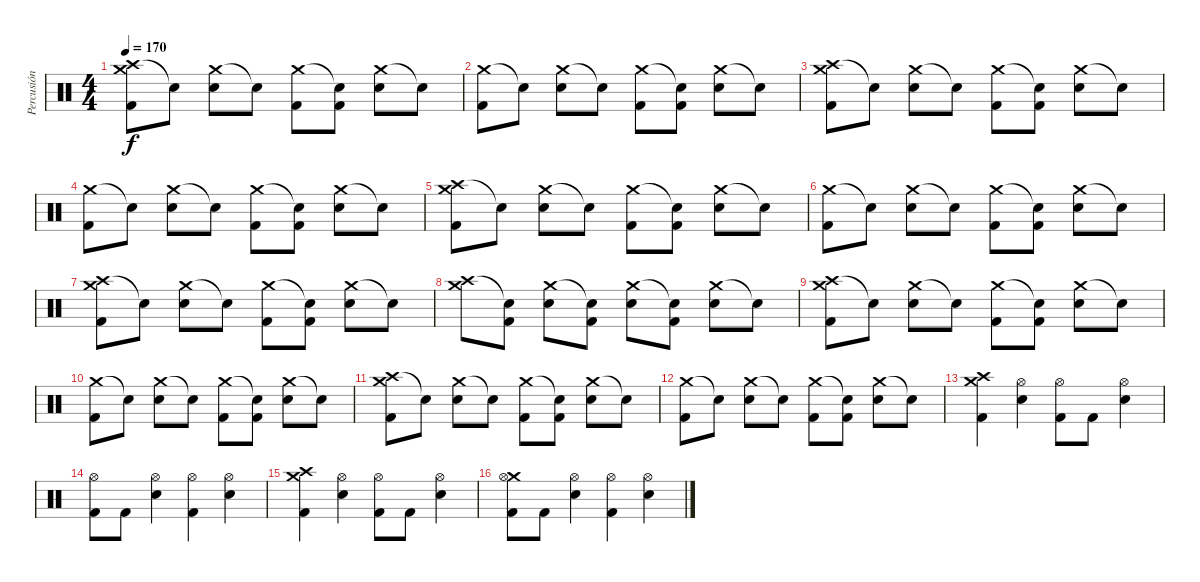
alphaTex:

\track ("Percusión" "Percusión") {instrument percussion}
\staff {score}
\articulation defaults
\ts (4 4)
\tempo 170
\clef neutral
\ks c
("Crash high (hit)" "Crash medium (hit)" "Kick (hit) 2").8{dy f} "Snare (hit)"{t}.8 ("Crash medium (hit)" "Snare (hit) 2").8 "Snare (hit)"{t}.8 ("Crash medium (hit)" "Kick (hit) 2").8 ("Snare (hit)"{t} "Kick (hit) 2").8 ("Crash medium (hit)" "Electric Snare (hit)").8 "Snare (hit)"{t}.8 |
("Crash medium (hit)" "Kick (hit) 2").8 "Snare (hit)"{t}.8 ("Crash medium (hit)" "Electric Snare (hit)").8 "Snare (hit)"{t}.8 ("Crash medium (hit)" "Kick (hit) 2").8 ("Snare (hit)"{t} "Kick (hit) 2").8 ("Crash medium (hit)" "Electric Snare (hit)").8 "Snare (hit)"{t}.8 |
("Crash high (hit)" "Crash medium (hit)" "Kick (hit) 2").8 "Snare (hit)"{t}.8 ("Crash medium (hit)" "Electric Snare (hit)").8 "Snare (hit)"{t}.8 ("Crash medium (hit)" "Kick (hit) 2").8 ("Snare (hit)"{t} "Kick (hit) 2").8 ("Crash medium (hit)" "Electric Snare (hit)").8 "Snare (hit)"{t}.8 |
("Crash medium (hit)" "Kick (hit) 2").8 "Snare (hit)"{t}.8 ("Crash medium (hit)" "Electric Snare (hit)").8 "Snare (hit)"{t}.8 ("Crash medium (hit)" "Kick (hit) 2").8 ("Snare (hit)"{t} "Kick (hit) 2").8 ("Crash medium (hit)" "Electric Snare (hit)").8 "Snare (hit)"{t}.8 |
("Crash high (hit)" "Crash medium (hit)" "Kick (hit) 2").8 "Snare (hit)"{t}.8 ("Crash medium (hit)" "Electric Snare (hit)").8 "Snare (hit)"{t}.8 ("Crash medium (hit)" "Kick (hit) 2").8 ("Snare (hit)"{t} "Kick (hit) 2").8 ("Crash medium (hit)" "Electric Snare (hit)").8 "Snare (hit)"{t}.8 |
("Crash medium (hit)" "Kick (hit) 2").8 "Snare (hit)"{t}.8 ("Crash medium (hit)" "Electric Snare (hit)").8 "Snare (hit)"{t}.8 ("Crash medium (hit)" "Kick (hit) 2").8 ("Snare (hit)"{t} "Kick (hit) 2").8 ("Crash medium (hit)" "Electric Snare (hit)").8 "Snare (hit)"{t}.8 |
("Crash high (hit)" "Crash medium (hit)" "Kick (hit) 2").8 "Snare (hit)"{t}.8 ("Crash medium (hit)" "Electric Snare (hit)").8 "Snare (hit)"{t}.8 ("Crash medium (hit)" "Kick (hit) 2").8 ("Snare (hit)"{t} "Kick (hit) 2").8 ("Crash medium (hit)" "Electric Snare (hit)").8 "Snare (hit)"{t}.8 |
("Crash high (hit)" "Crash medium (hit)").8 ("Snare (hit)"{t} "Kick (hit) 2").8 ("Crash medium (hit)" "Electric Snare (hit)").8 ("Snare (hit)"{t} "Kick (hit) 2").8 ("Crash medium (hit)" "Electric Snare (hit)").8 ("Snare (hit)"{t} "Kick (hit) 2").8 ("Crash medium (hit)" "Electric Snare (hit)").8 "Snare (hit)"{t}.8 |
("Crash high (hit)" "Crash medium (hit)" "Kick (hit) 2").8 "Snare (hit)"{t}.8 ("Crash medium (hit)" "Snare (hit) 2").8 "Snare (hit)"{t}.8 ("Crash medium (hit)" "Kick (hit) 2").8 ("Snare (hit)"{t} "Kick (hit) 2").8 ("Crash medium (hit)" "Electric Snare (hit)").8 "Snare (hit)"{t}.8 |
("Crash medium (hit)" "Kick (hit) 2").8 "Snare (hit)"{t}.8 ("Crash medium (hit)" "Electric Snare (hit)").8 "Snare (hit)"{t}.8 ("Crash medium (hit)" "Kick (hit) 2").8 ("Snare (hit)"{t} "Kick (hit) 2").8 ("Crash medium (hit)" "Electric Snare (hit)").8 "Snare (hit)"{t}.8 |
("Crash high (hit)" "Crash medium (hit)" "Kick (hit) 2").8 "Snare (hit)"{t}.8 ("Crash medium (hit)" "Electric Snare (hit)").8 "Snare (hit)"{t}.8 ("Crash medium (hit)" "Kick (hit) 2").8 ("Snare (hit)"{t} "Kick (hit) 2").8 ("Crash medium (hit)" "Electric Snare (hit)").8 "Snare (hit)"{t}.8 |
("Crash medium (hit)" "Kick (hit) 2").8 "Snare (hit)"{t}.8 ("Crash medium (hit)" "Electric Snare (hit)").8 "Snare (hit)"{t}.8 ("Crash medium (hit)" "Kick (hit) 2").8 ("Snare (hit)"{t} "Kick (hit) 2").8 ("Crash medium (hit)" "Electric Snare (hit)").8 "Snare (hit)"{t}.8 |
("Crash medium (hit)" "Crash high (hit)" "Kick (hit) 2").4 ("Hi-Hat (open)" "Electric Snare (hit)").4 ("Hi-Hat (open)" "Kick (hit) 2").8 "Kick (hit) 2".8 ("Hi-Hat (open)" "Electric Snare (hit)").4 |
("Hi-Hat (open)" "Kick (hit) 2").8 "Kick (hit) 2".8 ("Hi-Hat (open)" "Electric Snare (hit)").4 ("Hi-Hat (open)" "Kick (hit) 2").4 ("Hi-Hat (open)" "Electric Snare (hit)").4 |
("Crash medium (hit)" "Crash high (hit)" "Kick (hit) 2").4 ("Hi-Hat (open)" "Electric Snare (hit)").4 ("Hi-Hat (open)" "Kick (hit) 2").8 "Kick (hit) 2".8 ("Hi-Hat (open)" "Electric Snare (hit)").4 |
("Crash medium (hit)" "Hi-Hat (open)" "Kick (hit) 2").8 "Kick (hit) 2".8 ("Hi-Hat (open)" "Electric Snare (hit)").4 ("Hi-Hat (open)" "Kick (hit) 2").4 ("Hi-Hat (open)" "Electric Snare (hit)").4
